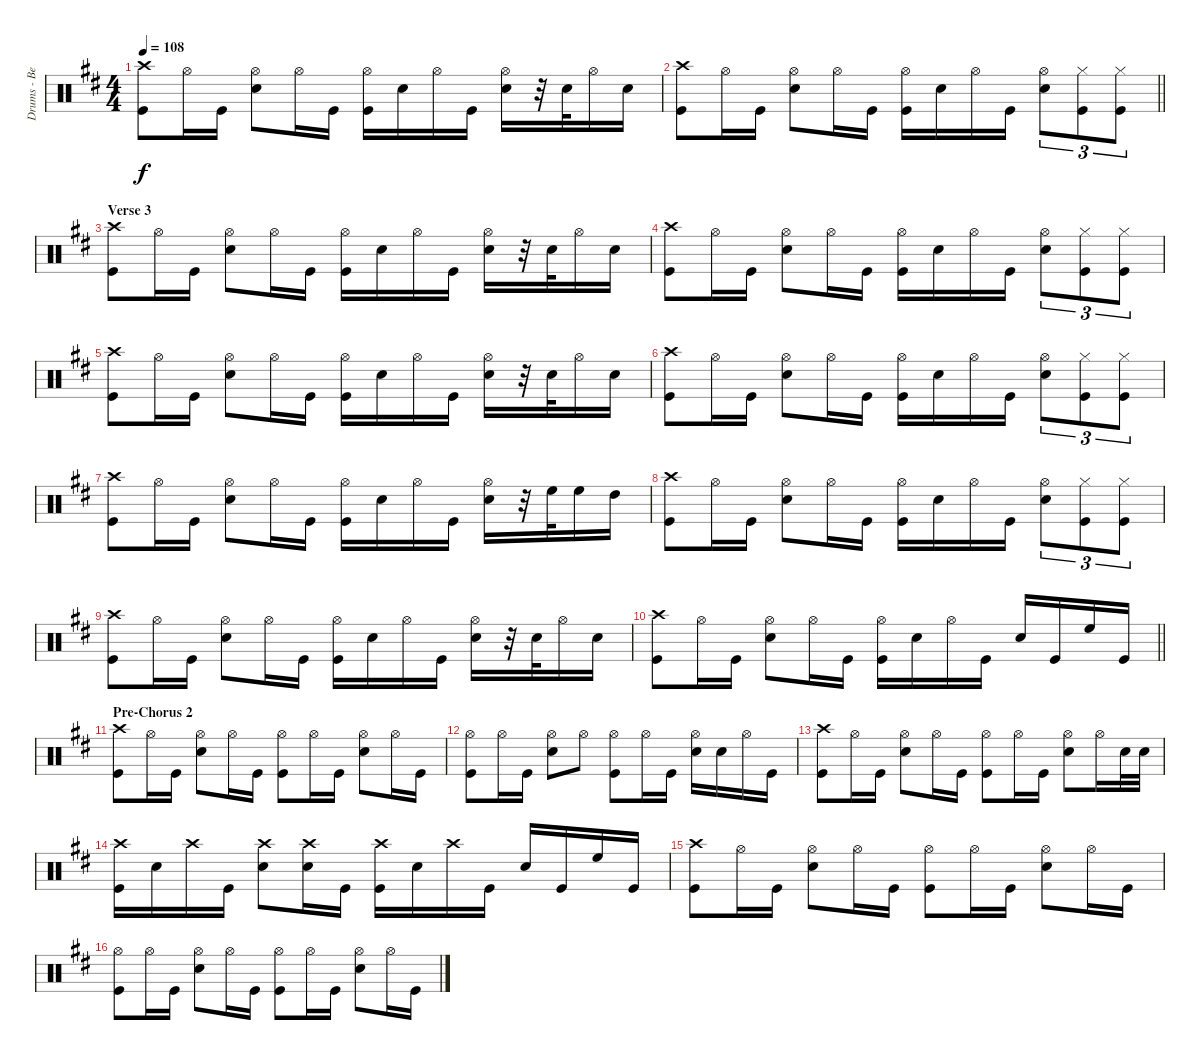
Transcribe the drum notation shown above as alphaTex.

\track ("Drums - Ben Johnston" "Drums - Be") {instrument percussion}
\staff {score}
\articulation defaults
\ts (4 4)
\tempo 108
\clef neutral
\ks d
("Crash high (hit)" "Kick (hit)").8{dy f} "Hi-Hat (open)".16 "Kick (hit)".16 ("Hi-Hat (open)" "Snare (hit) 2").8 "Hi-Hat (open)".16 "Kick (hit)".16 ("Hi-Hat (open)" "Kick (hit)").16 "Snare (hit) 2".16 "Hi-Hat (open)".16 "Kick (hit)".16 ("Hi-Hat (open)" "Snare (hit) 2").16 r.32 "Snare (hit) 2".32 "Hi-Hat (open)".16 "Snare (hit) 2".16 |
\barLineRight lightlight
("Crash high (hit)" "Kick (hit)").8 "Hi-Hat (open)".16 "Kick (hit)".16 ("Hi-Hat (open)" "Snare (hit) 2").8 "Hi-Hat (open)".16 "Kick (hit)".16 ("Hi-Hat (open)" "Kick (hit)").16 "Snare (hit) 2".16 "Hi-Hat (open)".16 "Kick (hit)".16 ("Hi-Hat (open)" "Snare (hit) 2").8{tu (3 2)} ("Hi-Hat (closed)" "Kick (hit)").8{tu (3 2)} ("Hi-Hat (closed)" "Kick (hit)").8{tu (3 2)} |
\section ("" "Verse 3")
("Crash high (hit)" "Kick (hit)").8 "Hi-Hat (open)".16 "Kick (hit)".16 ("Hi-Hat (open)" "Snare (hit) 2").8 "Hi-Hat (open)".16 "Kick (hit)".16 ("Hi-Hat (open)" "Kick (hit)").16 "Snare (hit) 2".16 "Hi-Hat (open)".16 "Kick (hit)".16 ("Hi-Hat (open)" "Snare (hit) 2").16 r.32 "Snare (hit) 2".32 "Hi-Hat (open)".16 "Snare (hit) 2".16 |
("Crash high (hit)" "Kick (hit)").8 "Hi-Hat (open)".16 "Kick (hit)".16 ("Hi-Hat (open)" "Snare (hit) 2").8 "Hi-Hat (open)".16 "Kick (hit)".16 ("Hi-Hat (open)" "Kick (hit)").16 "Snare (hit) 2".16 "Hi-Hat (open)".16 "Kick (hit)".16 ("Hi-Hat (open)" "Snare (hit) 2").8{tu (3 2)} ("Hi-Hat (closed)" "Kick (hit)").8{tu (3 2)} ("Hi-Hat (closed)" "Kick (hit)").8{tu (3 2)} |
("Crash high (hit)" "Kick (hit)").8 "Hi-Hat (open)".16 "Kick (hit)".16 ("Hi-Hat (open)" "Snare (hit) 2").8 "Hi-Hat (open)".16 "Kick (hit)".16 ("Hi-Hat (open)" "Kick (hit)").16 "Snare (hit) 2".16 "Hi-Hat (open)".16 "Kick (hit)".16 ("Hi-Hat (open)" "Snare (hit) 2").16 r.32 "Snare (hit) 2".32 "Hi-Hat (open)".16 "Snare (hit) 2".16 |
("Crash high (hit)" "Kick (hit)").8 "Hi-Hat (open)".16 "Kick (hit)".16 ("Hi-Hat (open)" "Snare (hit) 2").8 "Hi-Hat (open)".16 "Kick (hit)".16 ("Hi-Hat (open)" "Kick (hit)").16 "Snare (hit) 2".16 "Hi-Hat (open)".16 "Kick (hit)".16 ("Hi-Hat (open)" "Snare (hit) 2").8{tu (3 2)} ("Hi-Hat (closed)" "Kick (hit)").8{tu (3 2)} ("Hi-Hat (closed)" "Kick (hit)").8{tu (3 2)} |
("Crash high (hit)" "Kick (hit)").8 "Hi-Hat (open)".16 "Kick (hit)".16 ("Hi-Hat (open)" "Snare (hit) 2").8 "Hi-Hat (open)".16 "Kick (hit)".16 ("Hi-Hat (open)" "Kick (hit)").16 "Snare (hit) 2".16 "Hi-Hat (open)".16 "Kick (hit)".16 ("Hi-Hat (open)" "Snare (hit) 2").16 r.32 "High Floor Tom (hit)".32 "High Floor Tom (hit)".16 "High Tom (hit)".16 |
("Crash high (hit)" "Kick (hit)").8 "Hi-Hat (open)".16 "Kick (hit)".16 ("Hi-Hat (open)" "Snare (hit) 2").8 "Hi-Hat (open)".16 "Kick (hit)".16 ("Hi-Hat (open)" "Kick (hit)").16 "Snare (hit) 2".16 "Hi-Hat (open)".16 "Kick (hit)".16 ("Hi-Hat (open)" "Snare (hit) 2").8{tu (3 2)} ("Hi-Hat (closed)" "Kick (hit)").8{tu (3 2)} ("Hi-Hat (closed)" "Kick (hit)").8{tu (3 2)} |
("Crash high (hit)" "Kick (hit)").8 "Hi-Hat (open)".16 "Kick (hit)".16 ("Hi-Hat (open)" "Snare (hit) 2").8 "Hi-Hat (open)".16 "Kick (hit)".16 ("Hi-Hat (open)" "Kick (hit)").16 "Snare (hit) 2".16 "Hi-Hat (open)".16 "Kick (hit)".16 ("Hi-Hat (open)" "Snare (hit) 2").16 r.32 "Snare (hit) 2".32 "Hi-Hat (open)".16 "Snare (hit) 2".16 |
\barLineRight lightlight
("Crash high (hit)" "Kick (hit)").8 "Hi-Hat (open)".16 "Kick (hit)".16 ("Hi-Hat (open)" "Snare (hit) 2").8 "Hi-Hat (open)".16 "Kick (hit)".16 ("Hi-Hat (open)" "Kick (hit)").16 "Snare (hit) 2".16 "Hi-Hat (open)".16 "Kick (hit)".16 "Snare (hit) 2".16 "Kick (hit)".16 "High Floor Tom (hit)".16 "Kick (hit)".16 |
\section ("" "Pre-Chorus 2")
("Crash high (hit)" "Kick (hit)").8 "Hi-Hat (open)".16 "Kick (hit)".16 ("Hi-Hat (open)" "Snare (hit) 2").8 "Hi-Hat (open)".16 "Kick (hit)".16 ("Hi-Hat (open)" "Kick (hit)").8 "Hi-Hat (open)".16 "Kick (hit)".16 ("Hi-Hat (open)" "Snare (hit) 2").8 "Hi-Hat (open)".16 "Kick (hit)".16 |
("Hi-Hat (open)" "Kick (hit)").8 "Hi-Hat (open)".16 "Kick (hit)".16 ("Hi-Hat (open)" "Snare (hit) 2").8 "Hi-Hat (open)".8 ("Hi-Hat (open)" "Kick (hit)").8 "Hi-Hat (open)".16 "Kick (hit)".16 ("Hi-Hat (open)" "Snare (hit) 2").16 "Snare (hit) 2".16 "Hi-Hat (open)".16 "Kick (hit)".16 |
("Crash high (hit)" "Kick (hit)").8 "Hi-Hat (open)".16 "Kick (hit)".16 ("Hi-Hat (open)" "Snare (hit) 2").8 "Hi-Hat (open)".16 "Kick (hit)".16 ("Hi-Hat (open)" "Kick (hit)").8 "Hi-Hat (open)".16 "Kick (hit)".16 ("Hi-Hat (open)" "Snare (hit) 2").8 "Hi-Hat (open)".16 "Snare (hit) 2".32 "Snare (hit) 2".32 |
("Crash high (hit)" "Kick (hit)").16 "Snare (hit) 2".16 "Crash high (hit)".16 "Kick (hit)".16 ("Crash high (hit)" "Snare (hit) 2").8 ("Crash high (hit)" "Snare (hit) 2").16 "Kick (hit)".16 ("Crash high (hit)" "Kick (hit)").16 "Snare (hit) 2".16 "Crash high (hit)".16 "Kick (hit)".16 "Snare (hit) 2".16 "Kick (hit)".16 "High Floor Tom (hit)".16 "Kick (hit)".16 |
("Crash high (hit)" "Kick (hit)").8 "Hi-Hat (open)".16 "Kick (hit)".16 ("Hi-Hat (open)" "Snare (hit) 2").8 "Hi-Hat (open)".16 "Kick (hit)".16 ("Hi-Hat (open)" "Kick (hit)").8 "Hi-Hat (open)".16 "Kick (hit)".16 ("Hi-Hat (open)" "Snare (hit) 2").8 "Hi-Hat (open)".16 "Kick (hit)".16 |
("Hi-Hat (open)" "Kick (hit)").8 "Hi-Hat (open)".16 "Kick (hit)".16 ("Hi-Hat (open)" "Snare (hit) 2").8 "Hi-Hat (open)".16 "Kick (hit)".16 ("Hi-Hat (open)" "Kick (hit)").8 "Hi-Hat (open)".16 "Kick (hit)".16 ("Hi-Hat (open)" "Snare (hit) 2").8 "Hi-Hat (open)".16 "Kick (hit)".16
